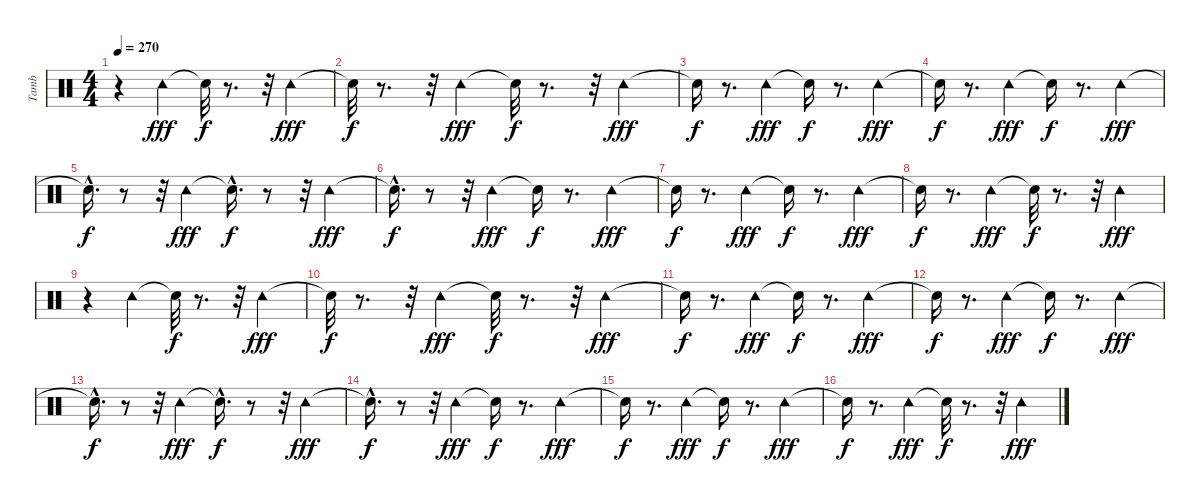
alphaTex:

\track ("Tamb" "Tamb") {instrument percussion}
\staff {score}
\articulation defaults
\ts (4 4)
\tempo 270
\clef neutral
\ks c
r.4{dy fff} "Tambourine (hit)".4 "Snare (hit)"{t}.32{dy f} r.8{d} r.32 "Tambourine (hit)".4{dy fff} |
"Snare (hit)"{t}.32{dy f} r.8{d} r.32 "Tambourine (hit)".4{dy fff} "Snare (hit)"{t}.32{dy f} r.8{d} r.32 "Tambourine (hit)".4{dy fff} |
"Snare (hit)"{t}.16{dy f} r.8{d} "Tambourine (hit)".4{dy fff} "Snare (hit)"{t}.16{dy f} r.8{d} "Tambourine (hit)".4{dy fff} |
"Snare (hit)"{t}.16{dy f} r.8{d} "Tambourine (hit)".4{dy fff} "Snare (hit)"{t}.16{dy f} r.8{d} "Tambourine (hit)".4{dy fff} |
"Snare (hit)"{hac t}.16{d dy f} r.8 r.32 "Tambourine (hit)".4{dy fff} "Snare (hit)"{hac t}.16{d dy f} r.8 r.32 "Tambourine (hit)".4{dy fff} |
"Snare (hit)"{hac t}.16{d dy f} r.8 r.32 "Tambourine (hit)".4{dy fff} "Snare (hit)"{t}.16{dy f} r.8{d} "Tambourine (hit)".4{dy fff} |
"Snare (hit)"{t}.16{dy f} r.8{d} "Tambourine (hit)".4{dy fff} "Snare (hit)"{t}.16{dy f} r.8{d} "Tambourine (hit)".4{dy fff} |
"Snare (hit)"{t}.16{dy f} r.8{d} "Tambourine (hit)".4{dy fff} "Snare (hit)"{t}.32{dy f} r.8{d} r.32 "Tambourine (hit)".4{dy fff} |
r.4 "Tambourine (hit)".4 "Snare (hit)"{t}.32{dy f} r.8{d} r.32 "Tambourine (hit)".4{dy fff} |
"Snare (hit)"{t}.32{dy f} r.8{d} r.32 "Tambourine (hit)".4{dy fff} "Snare (hit)"{t}.32{dy f} r.8{d} r.32 "Tambourine (hit)".4{dy fff} |
"Snare (hit)"{t}.16{dy f} r.8{d} "Tambourine (hit)".4{dy fff} "Snare (hit)"{t}.16{dy f} r.8{d} "Tambourine (hit)".4{dy fff} |
"Snare (hit)"{t}.16{dy f} r.8{d} "Tambourine (hit)".4{dy fff} "Snare (hit)"{t}.16{dy f} r.8{d} "Tambourine (hit)".4{dy fff} |
"Snare (hit)"{hac t}.16{d dy f} r.8 r.32 "Tambourine (hit)".4{dy fff} "Snare (hit)"{hac t}.16{d dy f} r.8 r.32 "Tambourine (hit)".4{dy fff} |
"Snare (hit)"{hac t}.16{d dy f} r.8 r.32 "Tambourine (hit)".4{dy fff} "Snare (hit)"{t}.16{dy f} r.8{d} "Tambourine (hit)".4{dy fff} |
"Snare (hit)"{t}.16{dy f} r.8{d} "Tambourine (hit)".4{dy fff} "Snare (hit)"{t}.16{dy f} r.8{d} "Tambourine (hit)".4{dy fff} |
"Snare (hit)"{t}.16{dy f} r.8{d} "Tambourine (hit)".4{dy fff} "Snare (hit)"{t}.32{dy f} r.8{d} r.32 "Tambourine (hit)".4{dy fff}
